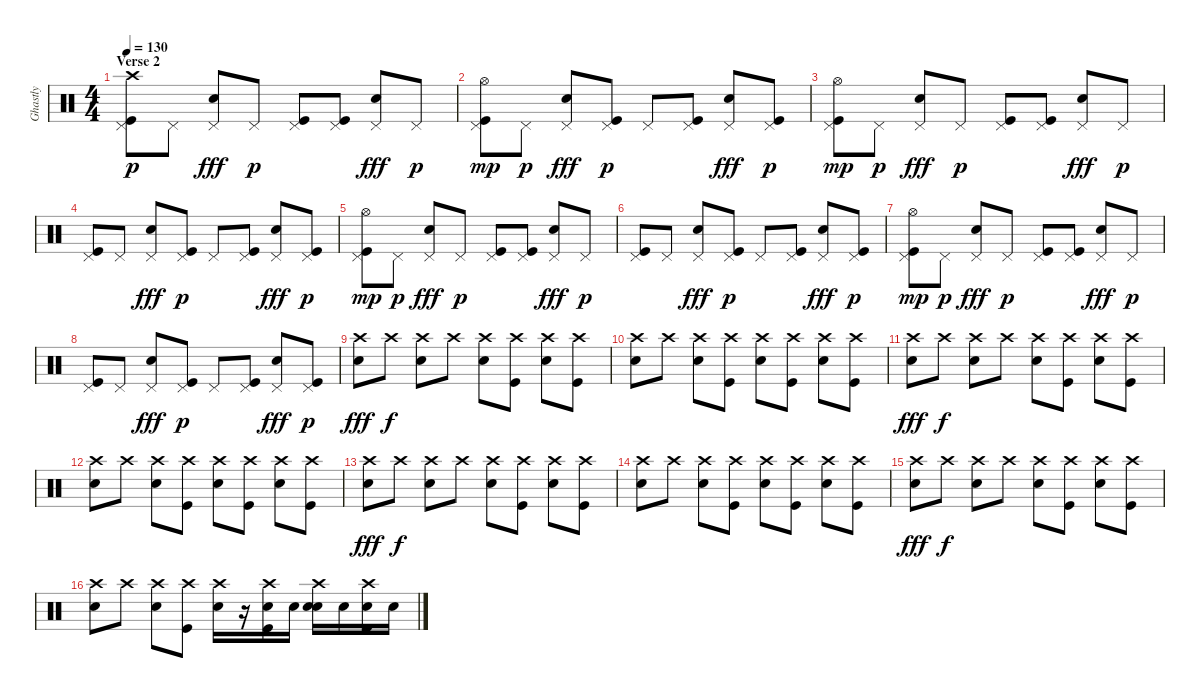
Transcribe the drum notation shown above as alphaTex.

\track ("Ghastly" "Ghastly") {instrument percussion}
\staff {score}
\articulation defaults
\ts (4 4)
\section ("" "Verse 2")
\tempo 130
\clef neutral
\ks c
("Crash high (hit)" "Pedal Hi-Hat (hit)" "Kick (hit)").8{dy p} "Pedal Hi-Hat (hit)".8 ("Pedal Hi-Hat (hit)" "Electric Snare (hit)").8{dy fff} "Pedal Hi-Hat (hit)".8{dy p} ("Pedal Hi-Hat (hit)" "Kick (hit)").8 ("Pedal Hi-Hat (hit)" "Kick (hit)").8 ("Pedal Hi-Hat (hit)" "Electric Snare (hit)").8{dy fff} "Pedal Hi-Hat (hit)".8{dy p} |
("Pedal Hi-Hat (hit)" "Kick (hit)" "Hi-Hat (open)").8{dy mp} "Pedal Hi-Hat (hit)".8{dy p} ("Pedal Hi-Hat (hit)" "Electric Snare (hit)").8{dy fff} ("Pedal Hi-Hat (hit)" "Kick (hit)").8{dy p} "Pedal Hi-Hat (hit)".8 ("Pedal Hi-Hat (hit)" "Kick (hit)").8 ("Pedal Hi-Hat (hit)" "Electric Snare (hit)").8{dy fff} ("Pedal Hi-Hat (hit)" "Kick (hit)").8{dy p} |
("Pedal Hi-Hat (hit)" "Kick (hit)" "Hi-Hat (open)").8{dy mp} "Pedal Hi-Hat (hit)".8{dy p} ("Pedal Hi-Hat (hit)" "Electric Snare (hit)").8{dy fff} "Pedal Hi-Hat (hit)".8{dy p} ("Pedal Hi-Hat (hit)" "Kick (hit)").8 ("Pedal Hi-Hat (hit)" "Kick (hit)").8 ("Pedal Hi-Hat (hit)" "Electric Snare (hit)").8{dy fff} "Pedal Hi-Hat (hit)".8{dy p} |
("Pedal Hi-Hat (hit)" "Kick (hit)").8 "Pedal Hi-Hat (hit)".8 ("Pedal Hi-Hat (hit)" "Electric Snare (hit)").8{dy fff} ("Pedal Hi-Hat (hit)" "Kick (hit)").8{dy p} "Pedal Hi-Hat (hit)".8 ("Pedal Hi-Hat (hit)" "Kick (hit)").8 ("Pedal Hi-Hat (hit)" "Electric Snare (hit)").8{dy fff} ("Pedal Hi-Hat (hit)" "Kick (hit)").8{dy p} |
("Pedal Hi-Hat (hit)" "Kick (hit)" "Hi-Hat (open)").8{dy mp} "Pedal Hi-Hat (hit)".8{dy p} ("Pedal Hi-Hat (hit)" "Electric Snare (hit)").8{dy fff} "Pedal Hi-Hat (hit)".8{dy p} ("Pedal Hi-Hat (hit)" "Kick (hit)").8 ("Pedal Hi-Hat (hit)" "Kick (hit)").8 ("Pedal Hi-Hat (hit)" "Electric Snare (hit)").8{dy fff} "Pedal Hi-Hat (hit)".8{dy p} |
("Pedal Hi-Hat (hit)" "Kick (hit)").8 "Pedal Hi-Hat (hit)".8 ("Pedal Hi-Hat (hit)" "Electric Snare (hit)").8{dy fff} ("Pedal Hi-Hat (hit)" "Kick (hit)").8{dy p} "Pedal Hi-Hat (hit)".8 ("Pedal Hi-Hat (hit)" "Kick (hit)").8 ("Pedal Hi-Hat (hit)" "Electric Snare (hit)").8{dy fff} ("Pedal Hi-Hat (hit)" "Kick (hit)").8{dy p} |
("Pedal Hi-Hat (hit)" "Kick (hit)" "Hi-Hat (open)").8{dy mp} "Pedal Hi-Hat (hit)".8{dy p} ("Pedal Hi-Hat (hit)" "Electric Snare (hit)").8{dy fff} "Pedal Hi-Hat (hit)".8{dy p} ("Pedal Hi-Hat (hit)" "Kick (hit)").8 ("Pedal Hi-Hat (hit)" "Kick (hit)").8 ("Pedal Hi-Hat (hit)" "Electric Snare (hit)").8{dy fff} "Pedal Hi-Hat (hit)".8{dy p} |
("Pedal Hi-Hat (hit)" "Kick (hit)").8 "Pedal Hi-Hat (hit)".8 ("Pedal Hi-Hat (hit)" "Electric Snare (hit)").8{dy fff} ("Pedal Hi-Hat (hit)" "Kick (hit)").8{dy p} "Pedal Hi-Hat (hit)".8 ("Pedal Hi-Hat (hit)" "Kick (hit)").8 ("Pedal Hi-Hat (hit)" "Electric Snare (hit)").8{dy fff} ("Pedal Hi-Hat (hit)" "Kick (hit)").8{dy p} |
("Crash high (hit)" "Electric Snare (hit)").8{dy fff} "Crash high (hit)".8{dy f} ("Crash high (hit)" "Electric Snare (hit)").8 "Crash high (hit)".8 ("Crash high (hit)" "Electric Snare (hit)").8 ("Crash high (hit)" "Kick (hit)").8 ("Crash high (hit)" "Electric Snare (hit)").8 ("Crash high (hit)" "Kick (hit)").8 |
("Crash high (hit)" "Electric Snare (hit)").8 "Crash high (hit)".8 ("Crash high (hit)" "Electric Snare (hit)").8 ("Crash high (hit)" "Kick (hit)").8 ("Crash high (hit)" "Electric Snare (hit)").8 ("Crash high (hit)" "Kick (hit)").8 ("Crash high (hit)" "Electric Snare (hit)").8 ("Crash high (hit)" "Kick (hit)").8 |
("Crash high (hit)" "Electric Snare (hit)").8{dy fff} "Crash high (hit)".8{dy f} ("Crash high (hit)" "Electric Snare (hit)").8 "Crash high (hit)".8 ("Crash high (hit)" "Electric Snare (hit)").8 ("Crash high (hit)" "Kick (hit)").8 ("Crash high (hit)" "Electric Snare (hit)").8 ("Crash high (hit)" "Kick (hit)").8 |
("Crash high (hit)" "Electric Snare (hit)").8 "Crash high (hit)".8 ("Crash high (hit)" "Electric Snare (hit)").8 ("Crash high (hit)" "Kick (hit)").8 ("Crash high (hit)" "Electric Snare (hit)").8 ("Crash high (hit)" "Kick (hit)").8 ("Crash high (hit)" "Electric Snare (hit)").8 ("Crash high (hit)" "Kick (hit)").8 |
("Crash high (hit)" "Electric Snare (hit)").8{dy fff} "Crash high (hit)".8{dy f} ("Crash high (hit)" "Electric Snare (hit)").8 "Crash high (hit)".8 ("Crash high (hit)" "Electric Snare (hit)").8 ("Crash high (hit)" "Kick (hit)").8 ("Crash high (hit)" "Electric Snare (hit)").8 ("Crash high (hit)" "Kick (hit)").8 |
("Crash high (hit)" "Electric Snare (hit)").8 "Crash high (hit)".8 ("Crash high (hit)" "Electric Snare (hit)").8 ("Crash high (hit)" "Kick (hit)").8 ("Crash high (hit)" "Electric Snare (hit)").8 ("Crash high (hit)" "Kick (hit)").8 ("Crash high (hit)" "Electric Snare (hit)").8 ("Crash high (hit)" "Kick (hit)").8 |
("Crash high (hit)" "Electric Snare (hit)").8{dy fff} "Crash high (hit)".8{dy f} ("Crash high (hit)" "Electric Snare (hit)").8 "Crash high (hit)".8 ("Crash high (hit)" "Electric Snare (hit)").8 ("Crash high (hit)" "Kick (hit)").8 ("Crash high (hit)" "Electric Snare (hit)").8 ("Crash high (hit)" "Kick (hit)").8 |
("Crash high (hit)" "Electric Snare (hit)").8 "Crash high (hit)".8 ("Crash high (hit)" "Electric Snare (hit)").8 ("Crash high (hit)" "Kick (hit)").8 ("Crash high (hit)" "Electric Snare (hit)").16 r.16 ("Crash high (hit)" "Kick (hit)" "Electric Snare (hit)").16 "Electric Snare (hit)".16 ("Crash high (hit)" "Electric Snare (hit)" "Electric Snare (hit)").16 "Electric Snare (hit)".16 ("Crash high (hit)" "Kick (hit)" "Electric Snare (hit)").16 "Electric Snare (hit)".16
